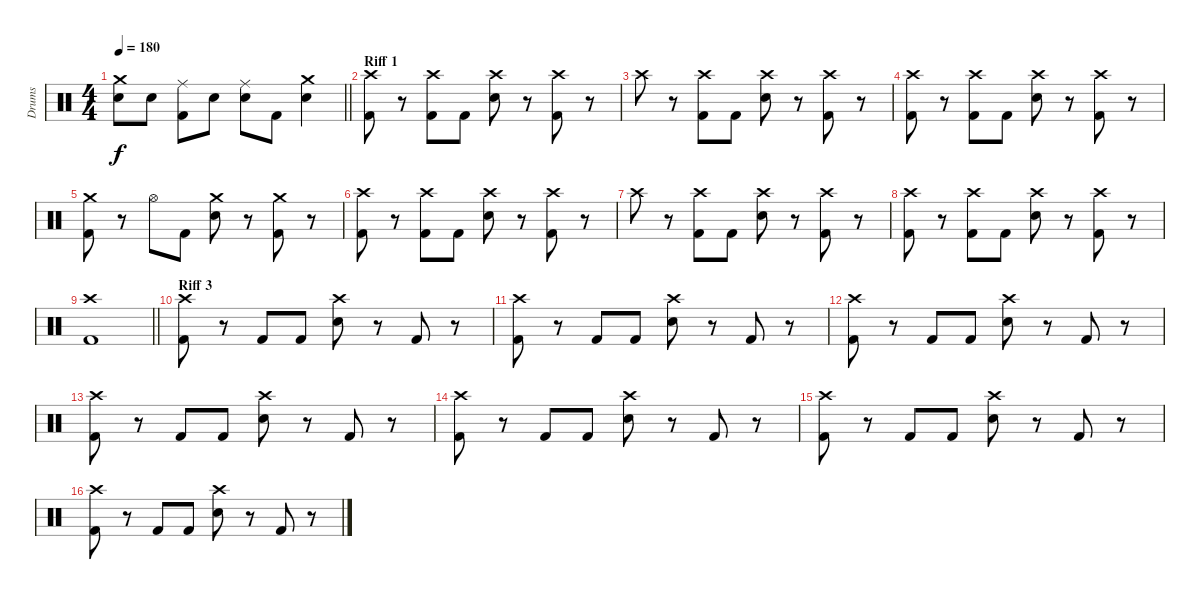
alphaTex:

\track ("Drums" "Drums") {instrument percussion}
\staff {score}
\articulation defaults
\ts (4 4)
\tempo 180
\clef neutral
\barLineRight lightlight
\ks c
("Crash medium (hit)" "Snare (hit) 2").8{dy f} "Snare (hit) 2".8 ("Ride (middle)" "Kick (hit) 2").8 "Snare (hit) 2".8 ("Ride (middle)" "Snare (hit) 2").8 "Kick (hit) 2".8 ("Crash medium (hit)" "Snare (hit) 2").4 |
\section ("" "Riff 1")
("Crash high (hit)" "Kick (hit) 2").8 r.8 ("Crash high (hit)" "Kick (hit) 2").8 "Kick (hit) 2".8 ("Crash high (hit)" "Snare (hit) 2").8 r.8 ("Crash high (hit)" "Kick (hit) 2").8 r.8 |
"Crash high (hit)".8 r.8 ("Crash high (hit)" "Kick (hit) 2").8 "Kick (hit) 2".8 ("Crash high (hit)" "Snare (hit) 2").8 r.8 ("Crash high (hit)" "Kick (hit) 2").8 r.8 |
("Crash high (hit)" "Kick (hit) 2").8 r.8 ("Crash high (hit)" "Kick (hit) 2").8 "Kick (hit) 2".8 ("Crash high (hit)" "Snare (hit) 2").8 r.8 ("Crash high (hit)" "Kick (hit) 2").8 r.8 |
("Crash medium (hit)" "Kick (hit) 2").8 r.8 "Hi-Hat (open)".8 "Kick (hit) 2".8 ("Crash medium (hit)" "Snare (hit) 2").8 r.8 ("Crash medium (hit)" "Kick (hit) 2").8 r.8 |
("Crash high (hit)" "Kick (hit) 2").8 r.8 ("Crash high (hit)" "Kick (hit) 2").8 "Kick (hit) 2".8 ("Crash high (hit)" "Snare (hit) 2").8 r.8 ("Crash high (hit)" "Kick (hit) 2").8 r.8 |
"Crash high (hit)".8 r.8 ("Crash high (hit)" "Kick (hit) 2").8 "Kick (hit) 2".8 ("Crash high (hit)" "Snare (hit) 2").8 r.8 ("Crash high (hit)" "Kick (hit) 2").8 r.8 |
("Crash high (hit)" "Kick (hit) 2").8 r.8 ("Crash high (hit)" "Kick (hit) 2").8 "Kick (hit) 2".8 ("Crash high (hit)" "Snare (hit) 2").8 r.8 ("Crash high (hit)" "Kick (hit) 2").8 r.8 |
\barLineRight lightlight
("Crash high (hit)" "Kick (hit) 2").1 |
\section ("" "Riff 3")
("Crash high (hit)" "Kick (hit) 2").8 r.8 "Kick (hit) 2".8 "Kick (hit) 2".8 ("Crash high (hit)" "Snare (hit) 2").8 r.8 "Kick (hit) 2".8 r.8 |
("Crash high (hit)" "Kick (hit) 2").8 r.8 "Kick (hit) 2".8 "Kick (hit) 2".8 ("Crash high (hit)" "Snare (hit) 2").8 r.8 "Kick (hit) 2".8 r.8 |
("Crash high (hit)" "Kick (hit) 2").8 r.8 "Kick (hit) 2".8 "Kick (hit) 2".8 ("Crash high (hit)" "Snare (hit) 2").8 r.8 "Kick (hit) 2".8 r.8 |
("Crash high (hit)" "Kick (hit) 2").8 r.8 "Kick (hit) 2".8 "Kick (hit) 2".8 ("Crash high (hit)" "Snare (hit) 2").8 r.8 "Kick (hit) 2".8 r.8 |
("Crash high (hit)" "Kick (hit) 2").8 r.8 "Kick (hit) 2".8 "Kick (hit) 2".8 ("Crash high (hit)" "Snare (hit) 2").8 r.8 "Kick (hit) 2".8 r.8 |
("Crash high (hit)" "Kick (hit) 2").8 r.8 "Kick (hit) 2".8 "Kick (hit) 2".8 ("Crash high (hit)" "Snare (hit) 2").8 r.8 "Kick (hit) 2".8 r.8 |
("Crash high (hit)" "Kick (hit) 2").8 r.8 "Kick (hit) 2".8 "Kick (hit) 2".8 ("Crash high (hit)" "Snare (hit) 2").8 r.8 "Kick (hit) 2".8 r.8
